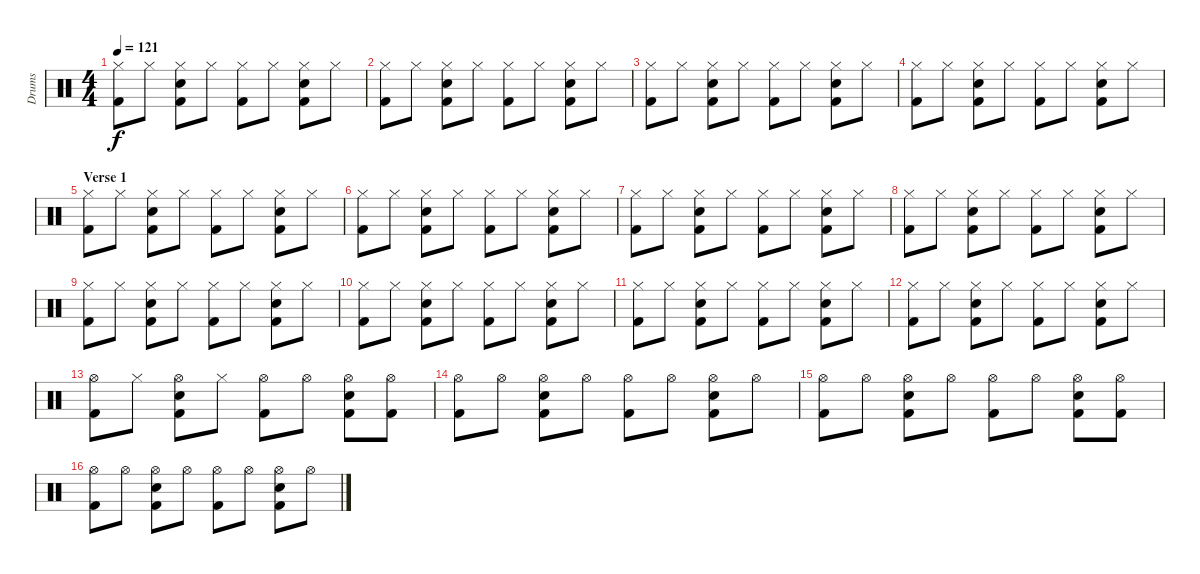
\track ("Drums" "Drums") {instrument percussion}
\staff {score}
\articulation defaults
\ts (4 4)
\tempo 121
\clef neutral
\ks c
("Kick (hit) 2" "Hi-Hat (closed)").8{dy f} "Hi-Hat (closed)".8 ("Kick (hit) 2" "Snare (hit) 2" "Hi-Hat (closed)").8 "Hi-Hat (closed)".8 ("Kick (hit) 2" "Hi-Hat (closed)").8 "Hi-Hat (closed)".8 ("Kick (hit) 2" "Snare (hit) 2" "Hi-Hat (closed)").8 "Hi-Hat (closed)".8 |
("Hi-Hat (closed)" "Kick (hit) 2").8 "Hi-Hat (closed)".8 ("Hi-Hat (closed)" "Kick (hit) 2" "Snare (hit) 2").8 "Hi-Hat (closed)".8 ("Hi-Hat (closed)" "Kick (hit) 2").8 "Hi-Hat (closed)".8 ("Snare (hit) 2" "Kick (hit) 2" "Hi-Hat (closed)").8 "Hi-Hat (closed)".8 |
("Kick (hit) 2" "Hi-Hat (closed)").8 "Hi-Hat (closed)".8 ("Kick (hit) 2" "Snare (hit) 2" "Hi-Hat (closed)").8 "Hi-Hat (closed)".8 ("Hi-Hat (closed)" "Kick (hit) 2").8 "Hi-Hat (closed)".8 ("Kick (hit) 2" "Snare (hit) 2" "Hi-Hat (closed)").8 "Hi-Hat (closed)".8 |
("Kick (hit) 2" "Hi-Hat (closed)").8 "Hi-Hat (closed)".8 ("Kick (hit) 2" "Snare (hit) 2" "Hi-Hat (closed)").8 "Hi-Hat (closed)".8 ("Kick (hit) 2" "Hi-Hat (closed)").8 "Hi-Hat (closed)".8 ("Kick (hit) 2" "Hi-Hat (closed)" "Snare (hit) 2").8 "Hi-Hat (closed)".8 |
\section ("" "Verse 1")
("Hi-Hat (closed)" "Kick (hit) 2").8 "Hi-Hat (closed)".8 ("Snare (hit) 2" "Kick (hit) 2" "Hi-Hat (closed)").8 "Hi-Hat (closed)".8 ("Hi-Hat (closed)" "Kick (hit) 2").8 "Hi-Hat (closed)".8 ("Kick (hit) 2" "Snare (hit) 2" "Hi-Hat (closed)").8 "Hi-Hat (closed)".8 |
("Hi-Hat (closed)" "Kick (hit) 2").8 "Hi-Hat (closed)".8 ("Kick (hit) 2" "Hi-Hat (closed)" "Snare (hit) 2").8 "Hi-Hat (closed)".8 ("Hi-Hat (closed)" "Kick (hit) 2").8 "Hi-Hat (closed)".8 ("Kick (hit) 2" "Hi-Hat (closed)" "Snare (hit) 2").8 "Hi-Hat (closed)".8 |
("Kick (hit) 2" "Hi-Hat (closed)").8 "Hi-Hat (closed)".8 ("Kick (hit) 2" "Snare (hit) 2" "Hi-Hat (closed)").8 "Hi-Hat (closed)".8 ("Kick (hit) 2" "Hi-Hat (closed)").8 "Hi-Hat (closed)".8 ("Kick (hit) 2" "Snare (hit) 2" "Hi-Hat (closed)").8 "Hi-Hat (closed)".8 |
("Kick (hit) 2" "Hi-Hat (closed)").8 "Hi-Hat (closed)".8 ("Hi-Hat (closed)" "Kick (hit) 2" "Snare (hit) 2").8 "Hi-Hat (closed)".8 ("Hi-Hat (closed)" "Kick (hit) 2").8 "Hi-Hat (closed)".8 ("Snare (hit) 2" "Kick (hit) 2" "Hi-Hat (closed)").8 "Hi-Hat (closed)".8 |
("Hi-Hat (closed)" "Kick (hit) 2").8 "Hi-Hat (closed)".8 ("Hi-Hat (closed)" "Snare (hit) 2" "Kick (hit) 2").8 "Hi-Hat (closed)".8 ("Kick (hit) 2" "Hi-Hat (closed)").8 "Hi-Hat (closed)".8 ("Snare (hit) 2" "Kick (hit) 2" "Hi-Hat (closed)").8 "Hi-Hat (closed)".8 |
("Hi-Hat (closed)" "Kick (hit) 2").8 "Hi-Hat (closed)".8 ("Kick (hit) 2" "Hi-Hat (closed)" "Snare (hit) 2").8 "Hi-Hat (closed)".8 ("Hi-Hat (closed)" "Kick (hit) 2").8 "Hi-Hat (closed)".8 ("Kick (hit) 2" "Hi-Hat (closed)" "Snare (hit) 2").8 "Hi-Hat (closed)".8 |
("Kick (hit) 2" "Hi-Hat (closed)").8 "Hi-Hat (closed)".8 ("Kick (hit) 2" "Snare (hit) 2" "Hi-Hat (closed)").8 "Hi-Hat (closed)".8 ("Kick (hit) 2" "Hi-Hat (closed)").8 "Hi-Hat (closed)".8 ("Kick (hit) 2" "Snare (hit) 2" "Hi-Hat (closed)").8 "Hi-Hat (closed)".8 |
("Kick (hit) 2" "Hi-Hat (closed)").8 "Hi-Hat (closed)".8 ("Hi-Hat (closed)" "Kick (hit) 2" "Snare (hit) 2").8 "Hi-Hat (closed)".8 ("Hi-Hat (closed)" "Kick (hit) 2").8 "Hi-Hat (closed)".8 ("Hi-Hat (closed)" "Snare (hit) 2" "Kick (hit) 2").8 "Hi-Hat (closed)".8 |
("Hi-Hat (open)" "Kick (hit) 2").8 "Hi-Hat (closed)".8 ("Kick (hit) 2" "Snare (hit) 2" "Hi-Hat (open)").8 "Hi-Hat (closed)".8 ("Hi-Hat (open)" "Kick (hit) 2").8 "Hi-Hat (open)".8 ("Snare (hit) 2" "Hi-Hat (open)" "Kick (hit) 2").8 ("Kick (hit) 2" "Hi-Hat (open)").8 |
("Kick (hit) 2" "Hi-Hat (open)").8 "Hi-Hat (open)".8 ("Hi-Hat (open)" "Kick (hit) 2" "Snare (hit) 2").8 "Hi-Hat (open)".8 ("Hi-Hat (open)" "Kick (hit) 2").8 "Hi-Hat (open)".8 ("Snare (hit) 2" "Kick (hit) 2" "Hi-Hat (open)").8 "Hi-Hat (open)".8 |
("Hi-Hat (open)" "Kick (hit) 2").8 "Hi-Hat (open)".8 ("Kick (hit) 2" "Snare (hit) 2" "Hi-Hat (open)").8 "Hi-Hat (open)".8 ("Kick (hit) 2" "Hi-Hat (open)").8 "Hi-Hat (open)".8 ("Kick (hit) 2" "Snare (hit) 2" "Hi-Hat (open)").8 ("Kick (hit) 2" "Hi-Hat (open)").8 |
("Kick (hit) 2" "Hi-Hat (open)").8 "Hi-Hat (open)".8 ("Snare (hit) 2" "Kick (hit) 2" "Hi-Hat (open)").8 "Hi-Hat (open)".8 ("Hi-Hat (open)" "Kick (hit) 2").8 "Hi-Hat (open)".8 ("Kick (hit) 2" "Snare (hit) 2" "Hi-Hat (open)").8 "Hi-Hat (open)".8
